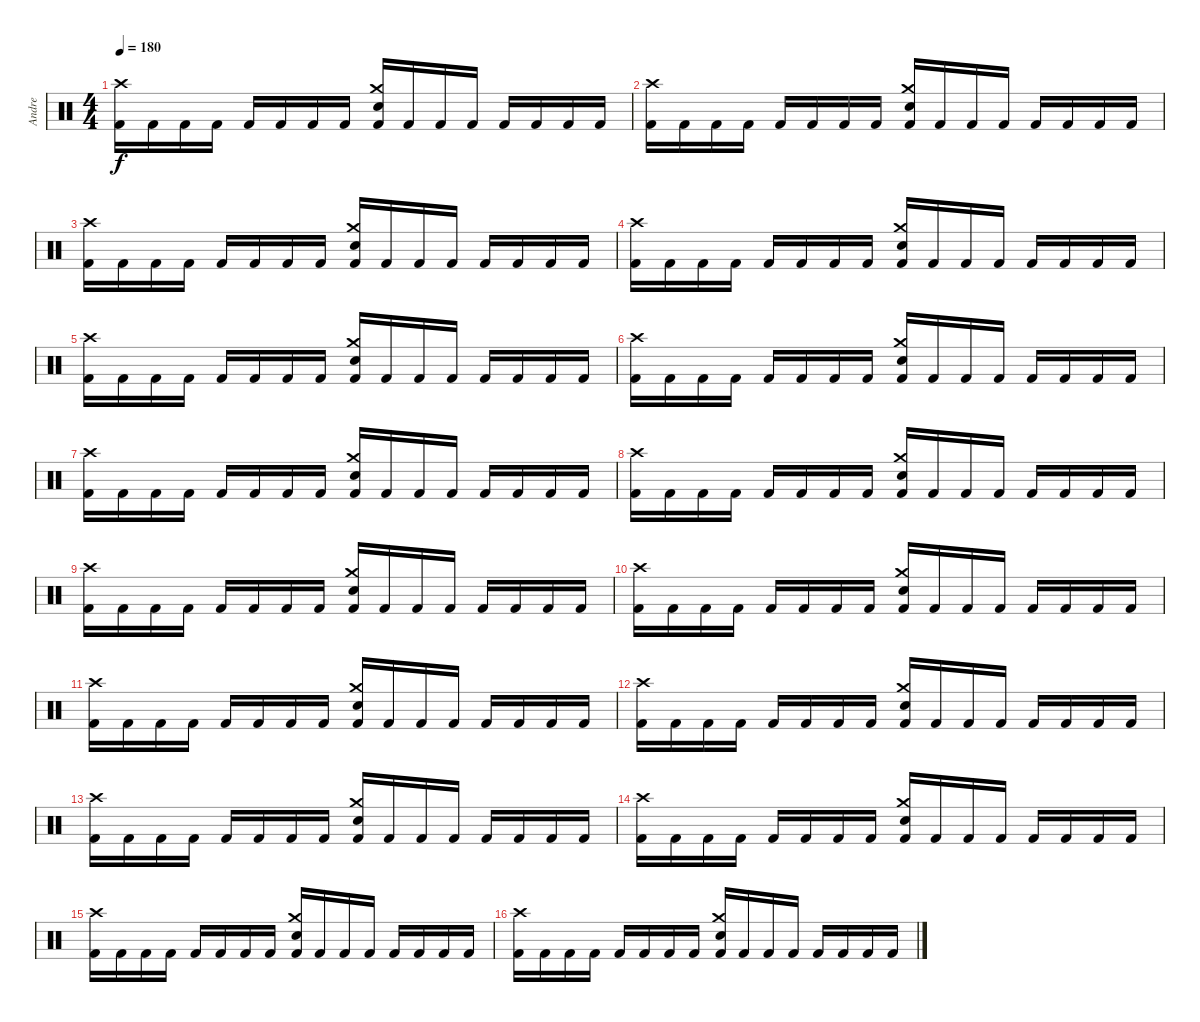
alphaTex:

\track ("Andre" "Andre") {instrument percussion}
\staff {score}
\articulation defaults
\ts (4 4)
\tempo 180
\clef neutral
\ks c
("Crash high (hit)" "Kick (hit) 2").16{dy f} "Kick (hit) 2".16 "Kick (hit) 2".16 "Kick (hit) 2".16 "Kick (hit) 2".16 "Kick (hit) 2".16 "Kick (hit) 2".16 "Kick (hit) 2".16 ("Crash medium (hit)" "Snare (hit) 2" "Kick (hit) 2").16 "Kick (hit) 2".16 "Kick (hit) 2".16 "Kick (hit) 2".16 "Kick (hit) 2".16 "Kick (hit) 2".16 "Kick (hit) 2".16 "Kick (hit) 2".16 |
("Crash high (hit)" "Kick (hit) 2").16 "Kick (hit) 2".16 "Kick (hit) 2".16 "Kick (hit) 2".16 "Kick (hit) 2".16 "Kick (hit) 2".16 "Kick (hit) 2".16 "Kick (hit) 2".16 ("Crash medium (hit)" "Snare (hit) 2" "Kick (hit) 2").16 "Kick (hit) 2".16 "Kick (hit) 2".16 "Kick (hit) 2".16 "Kick (hit) 2".16 "Kick (hit) 2".16 "Kick (hit) 2".16 "Kick (hit) 2".16 |
("Crash high (hit)" "Kick (hit) 2").16 "Kick (hit) 2".16 "Kick (hit) 2".16 "Kick (hit) 2".16 "Kick (hit) 2".16 "Kick (hit) 2".16 "Kick (hit) 2".16 "Kick (hit) 2".16 ("Crash medium (hit)" "Snare (hit) 2" "Kick (hit) 2").16 "Kick (hit) 2".16 "Kick (hit) 2".16 "Kick (hit) 2".16 "Kick (hit) 2".16 "Kick (hit) 2".16 "Kick (hit) 2".16 "Kick (hit) 2".16 |
("Crash high (hit)" "Kick (hit) 2").16 "Kick (hit) 2".16 "Kick (hit) 2".16 "Kick (hit) 2".16 "Kick (hit) 2".16 "Kick (hit) 2".16 "Kick (hit) 2".16 "Kick (hit) 2".16 ("Crash medium (hit)" "Snare (hit) 2" "Kick (hit) 2").16 "Kick (hit) 2".16 "Kick (hit) 2".16 "Kick (hit) 2".16 "Kick (hit) 2".16 "Kick (hit) 2".16 "Kick (hit) 2".16 "Kick (hit) 2".16 |
("Crash high (hit)" "Kick (hit) 2").16 "Kick (hit) 2".16 "Kick (hit) 2".16 "Kick (hit) 2".16 "Kick (hit) 2".16 "Kick (hit) 2".16 "Kick (hit) 2".16 "Kick (hit) 2".16 ("Crash medium (hit)" "Snare (hit) 2" "Kick (hit) 2").16 "Kick (hit) 2".16 "Kick (hit) 2".16 "Kick (hit) 2".16 "Kick (hit) 2".16 "Kick (hit) 2".16 "Kick (hit) 2".16 "Kick (hit) 2".16 |
("Crash high (hit)" "Kick (hit) 2").16 "Kick (hit) 2".16 "Kick (hit) 2".16 "Kick (hit) 2".16 "Kick (hit) 2".16 "Kick (hit) 2".16 "Kick (hit) 2".16 "Kick (hit) 2".16 ("Crash medium (hit)" "Snare (hit) 2" "Kick (hit) 2").16 "Kick (hit) 2".16 "Kick (hit) 2".16 "Kick (hit) 2".16 "Kick (hit) 2".16 "Kick (hit) 2".16 "Kick (hit) 2".16 "Kick (hit) 2".16 |
("Crash high (hit)" "Kick (hit) 2").16 "Kick (hit) 2".16 "Kick (hit) 2".16 "Kick (hit) 2".16 "Kick (hit) 2".16 "Kick (hit) 2".16 "Kick (hit) 2".16 "Kick (hit) 2".16 ("Crash medium (hit)" "Snare (hit) 2" "Kick (hit) 2").16 "Kick (hit) 2".16 "Kick (hit) 2".16 "Kick (hit) 2".16 "Kick (hit) 2".16 "Kick (hit) 2".16 "Kick (hit) 2".16 "Kick (hit) 2".16 |
("Crash high (hit)" "Kick (hit) 2").16 "Kick (hit) 2".16 "Kick (hit) 2".16 "Kick (hit) 2".16 "Kick (hit) 2".16 "Kick (hit) 2".16 "Kick (hit) 2".16 "Kick (hit) 2".16 ("Crash medium (hit)" "Snare (hit) 2" "Kick (hit) 2").16 "Kick (hit) 2".16 "Kick (hit) 2".16 "Kick (hit) 2".16 "Kick (hit) 2".16 "Kick (hit) 2".16 "Kick (hit) 2".16 "Kick (hit) 2".16 |
("Crash high (hit)" "Kick (hit) 2").16 "Kick (hit) 2".16 "Kick (hit) 2".16 "Kick (hit) 2".16 "Kick (hit) 2".16 "Kick (hit) 2".16 "Kick (hit) 2".16 "Kick (hit) 2".16 ("Crash medium (hit)" "Snare (hit) 2" "Kick (hit) 2").16 "Kick (hit) 2".16 "Kick (hit) 2".16 "Kick (hit) 2".16 "Kick (hit) 2".16 "Kick (hit) 2".16 "Kick (hit) 2".16 "Kick (hit) 2".16 |
("Crash high (hit)" "Kick (hit) 2").16 "Kick (hit) 2".16 "Kick (hit) 2".16 "Kick (hit) 2".16 "Kick (hit) 2".16 "Kick (hit) 2".16 "Kick (hit) 2".16 "Kick (hit) 2".16 ("Crash medium (hit)" "Snare (hit) 2" "Kick (hit) 2").16 "Kick (hit) 2".16 "Kick (hit) 2".16 "Kick (hit) 2".16 "Kick (hit) 2".16 "Kick (hit) 2".16 "Kick (hit) 2".16 "Kick (hit) 2".16 |
("Crash high (hit)" "Kick (hit) 2").16 "Kick (hit) 2".16 "Kick (hit) 2".16 "Kick (hit) 2".16 "Kick (hit) 2".16 "Kick (hit) 2".16 "Kick (hit) 2".16 "Kick (hit) 2".16 ("Crash medium (hit)" "Snare (hit) 2" "Kick (hit) 2").16 "Kick (hit) 2".16 "Kick (hit) 2".16 "Kick (hit) 2".16 "Kick (hit) 2".16 "Kick (hit) 2".16 "Kick (hit) 2".16 "Kick (hit) 2".16 |
("Crash high (hit)" "Kick (hit) 2").16 "Kick (hit) 2".16 "Kick (hit) 2".16 "Kick (hit) 2".16 "Kick (hit) 2".16 "Kick (hit) 2".16 "Kick (hit) 2".16 "Kick (hit) 2".16 ("Crash medium (hit)" "Snare (hit) 2" "Kick (hit) 2").16 "Kick (hit) 2".16 "Kick (hit) 2".16 "Kick (hit) 2".16 "Kick (hit) 2".16 "Kick (hit) 2".16 "Kick (hit) 2".16 "Kick (hit) 2".16 |
("Crash high (hit)" "Kick (hit) 2").16 "Kick (hit) 2".16 "Kick (hit) 2".16 "Kick (hit) 2".16 "Kick (hit) 2".16 "Kick (hit) 2".16 "Kick (hit) 2".16 "Kick (hit) 2".16 ("Crash medium (hit)" "Snare (hit) 2" "Kick (hit) 2").16 "Kick (hit) 2".16 "Kick (hit) 2".16 "Kick (hit) 2".16 "Kick (hit) 2".16 "Kick (hit) 2".16 "Kick (hit) 2".16 "Kick (hit) 2".16 |
("Crash high (hit)" "Kick (hit) 2").16 "Kick (hit) 2".16 "Kick (hit) 2".16 "Kick (hit) 2".16 "Kick (hit) 2".16 "Kick (hit) 2".16 "Kick (hit) 2".16 "Kick (hit) 2".16 ("Crash medium (hit)" "Snare (hit) 2" "Kick (hit) 2").16 "Kick (hit) 2".16 "Kick (hit) 2".16 "Kick (hit) 2".16 "Kick (hit) 2".16 "Kick (hit) 2".16 "Kick (hit) 2".16 "Kick (hit) 2".16 |
("Crash high (hit)" "Kick (hit) 2").16 "Kick (hit) 2".16 "Kick (hit) 2".16 "Kick (hit) 2".16 "Kick (hit) 2".16 "Kick (hit) 2".16 "Kick (hit) 2".16 "Kick (hit) 2".16 ("Crash medium (hit)" "Snare (hit) 2" "Kick (hit) 2").16 "Kick (hit) 2".16 "Kick (hit) 2".16 "Kick (hit) 2".16 "Kick (hit) 2".16 "Kick (hit) 2".16 "Kick (hit) 2".16 "Kick (hit) 2".16 |
("Crash high (hit)" "Kick (hit) 2").16 "Kick (hit) 2".16 "Kick (hit) 2".16 "Kick (hit) 2".16 "Kick (hit) 2".16 "Kick (hit) 2".16 "Kick (hit) 2".16 "Kick (hit) 2".16 ("Crash medium (hit)" "Snare (hit) 2" "Kick (hit) 2").16 "Kick (hit) 2".16 "Kick (hit) 2".16 "Kick (hit) 2".16 "Kick (hit) 2".16 "Kick (hit) 2".16 "Kick (hit) 2".16 "Kick (hit) 2".16
